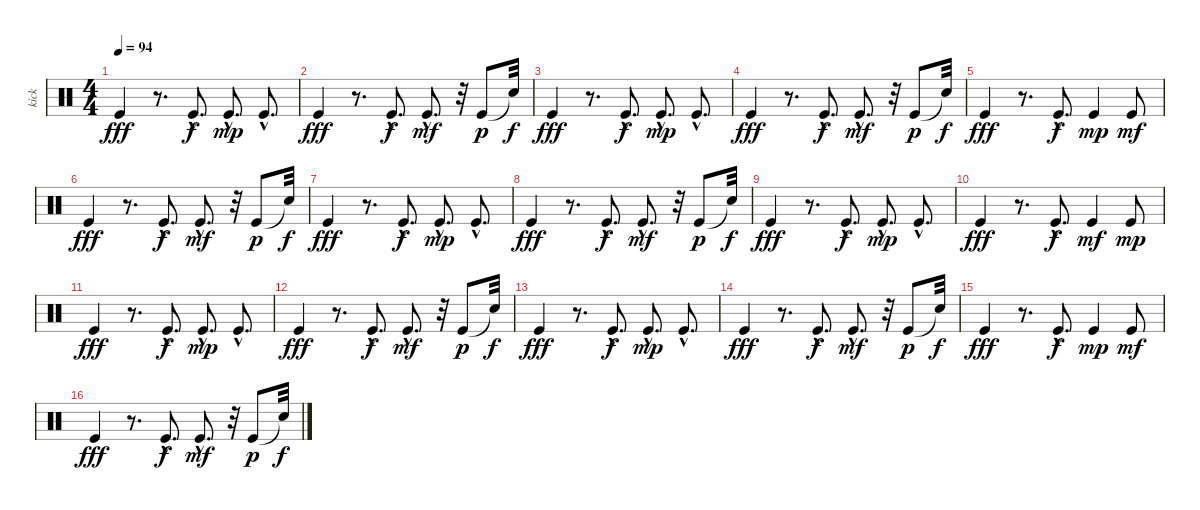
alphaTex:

\track ("kick" "kick") {instrument percussion}
\staff {score}
\articulation defaults
\ts (4 4)
\tempo 94
\clef neutral
\ks c "Kick (hit)".4{dy fff}
r.8{d} "Kick (hit)"{hac}.8{d dy f} "Kick (hit)"{hac}.8{d dy mp} "Kick (hit)"{hac}.8{d} |
"Kick (hit)".4{dy fff} r.8{d} "Kick (hit)"{hac}.8{d dy f} "Kick (hit)"{hac}.8{d dy mf} r.32 "Kick (hit)".8{dy p} "Snare (hit)"{t}.32{dy f} |
"Kick (hit)".4{dy fff} r.8{d} "Kick (hit)"{hac}.8{d dy f} "Kick (hit)"{hac}.8{d dy mp} "Kick (hit)"{hac}.8{d} |
"Kick (hit)".4{dy fff} r.8{d} "Kick (hit)"{hac}.8{d dy f} "Kick (hit)"{hac}.8{d dy mf} r.32 "Kick (hit)".8{dy p} "Snare (hit)"{t}.32{dy f} |
"Kick (hit)".4{dy fff} r.8{d} "Kick (hit)"{hac}.8{d dy f} "Kick (hit)".4{dy mp} "Kick (hit)".8{dy mf} |
"Kick (hit)".4{dy fff} r.8{d} "Kick (hit)"{hac}.8{d dy f} "Kick (hit)"{hac}.8{d dy mf} r.32 "Kick (hit)".8{dy p} "Snare (hit)"{t}.32{dy f} |
"Kick (hit)".4{dy fff} r.8{d} "Kick (hit)"{hac}.8{d dy f} "Kick (hit)"{hac}.8{d dy mp} "Kick (hit)"{hac}.8{d} |
"Kick (hit)".4{dy fff} r.8{d} "Kick (hit)"{hac}.8{d dy f} "Kick (hit)"{hac}.8{d dy mf} r.32 "Kick (hit)".8{dy p} "Snare (hit)"{t}.32{dy f} |
"Kick (hit)".4{dy fff} r.8{d} "Kick (hit)"{hac}.8{d dy f} "Kick (hit)"{hac}.8{d dy mp} "Kick (hit)"{hac}.8{d} |
"Kick (hit)".4{dy fff} r.8{d} "Kick (hit)"{hac}.8{d dy f} "Kick (hit)".4{dy mf} "Kick (hit)".8{dy mp} |
"Kick (hit)".4{dy fff} r.8{d} "Kick (hit)"{hac}.8{d dy f} "Kick (hit)"{hac}.8{d dy mp} "Kick (hit)"{hac}.8{d} |
"Kick (hit)".4{dy fff} r.8{d} "Kick (hit)"{hac}.8{d dy f} "Kick (hit)"{hac}.8{d dy mf} r.32 "Kick (hit)".8{dy p} "Snare (hit)"{t}.32{dy f} |
"Kick (hit)".4{dy fff} r.8{d} "Kick (hit)"{hac}.8{d dy f} "Kick (hit)"{hac}.8{d dy mp} "Kick (hit)"{hac}.8{d} |
"Kick (hit)".4{dy fff} r.8{d} "Kick (hit)"{hac}.8{d dy f} "Kick (hit)"{hac}.8{d dy mf} r.32 "Kick (hit)".8{dy p} "Snare (hit)"{t}.32{dy f} |
"Kick (hit)".4{dy fff} r.8{d} "Kick (hit)"{hac}.8{d dy f} "Kick (hit)".4{dy mp} "Kick (hit)".8{dy mf} |
"Kick (hit)".4{dy fff} r.8{d} "Kick (hit)"{hac}.8{d dy f} "Kick (hit)"{hac}.8{d dy mf} r.32 "Kick (hit)".8{dy p} "Snare (hit)"{t}.32{dy f}
